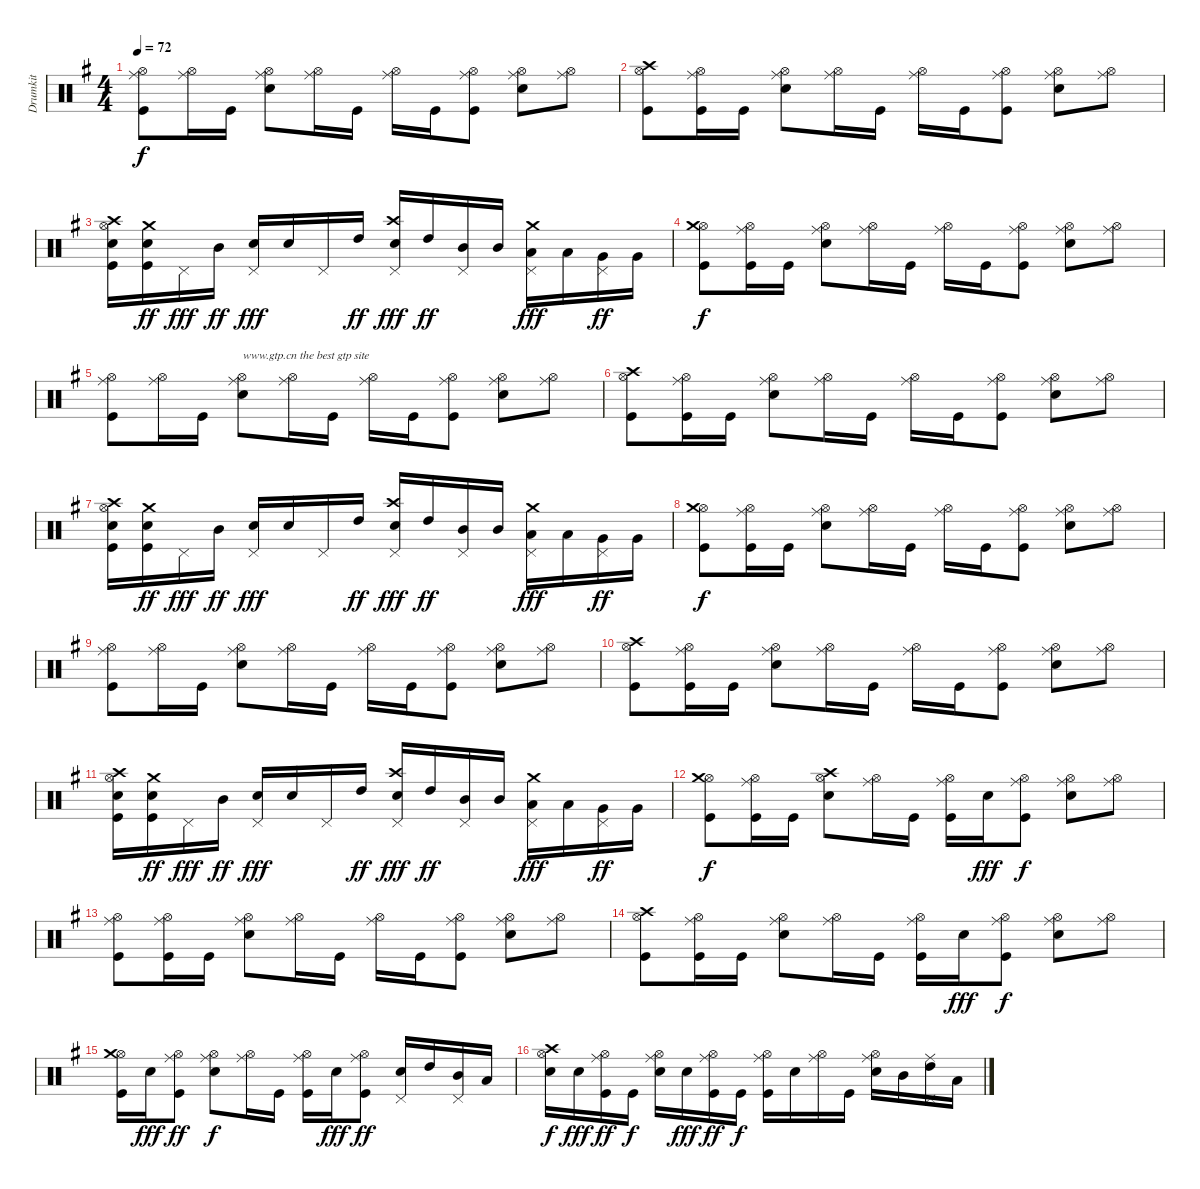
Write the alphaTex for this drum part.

\track ("Drumkit" "Drumkit") {instrument percussion}
\staff {score}
\articulation defaults
\ts (4 4)
\tempo 72
\clef neutral
\ks g
("Hi-Hat (open)" "Ride (middle)" "Kick (hit)").8{dy f} ("Hi-Hat (open)" "Ride (middle)").16 "Kick (hit)".16 ("Hi-Hat (open)" "Ride (middle)" "Snare (hit) 2").8 ("Hi-Hat (open)" "Ride (middle)").16 "Kick (hit)".16 ("Hi-Hat (open)" "Ride (middle)").16 "Kick (hit)".16 ("Hi-Hat (open)" "Ride (middle)" "Kick (hit)").8 ("Hi-Hat (open)" "Ride (middle)" "Snare (hit) 2").8 ("Hi-Hat (open)" "Ride (middle)").8 |
("Hi-Hat (open)" "Crash high (hit)" "Kick (hit)").8 ("Hi-Hat (open)" "Ride (middle)" "Kick (hit)").16 "Kick (hit)".16 ("Hi-Hat (open)" "Ride (middle)" "Snare (hit) 2").8 ("Hi-Hat (open)" "Ride (middle)").16 "Kick (hit)".16 ("Hi-Hat (open)" "Ride (middle)").16 "Kick (hit)".16 ("Hi-Hat (open)" "Ride (middle)" "Kick (hit)").8 ("Hi-Hat (open)" "Ride (middle)" "Snare (hit) 2").8 ("Hi-Hat (open)" "Ride (middle)").8 |
("Hi-Hat (open)" "Crash high (hit)" "Snare (hit) 2" "Kick (hit)").16 ("Crash medium (hit)" "Snare (hit) 2" "Kick (hit)").16{dy ff} "Pedal Hi-Hat (hit)".16{dy fff} "Mid Tom (hit)".16{dy ff} ("Pedal Hi-Hat (hit)" "Snare (hit) 2").16{dy fff} "Snare (hit) 2".16 "Pedal Hi-Hat (hit)".16 "High Tom (hit)".16{dy ff} ("Pedal Hi-Hat (hit)" "Crash high (hit)" "Snare (hit) 2").16{dy fff} "High Tom (hit)".16{dy ff} ("Pedal Hi-Hat (hit)" "Mid Tom (hit)").16 "Mid Tom (hit)".16 ("Pedal Hi-Hat (hit)" "Crash medium (hit)" "Low Tom (hit)").16{dy fff} "Low Tom (hit)".16 ("Pedal Hi-Hat (hit)" "Very Low Tom (hit)").16{dy ff} "Very Low Tom (hit)".16 |
("Hi-Hat (open)" "Crash medium (hit)" "Kick (hit)").8{dy f} ("Hi-Hat (open)" "Ride (middle)" "Kick (hit)").16 "Kick (hit)".16 ("Hi-Hat (open)" "Ride (middle)" "Snare (hit) 2").8 ("Hi-Hat (open)" "Ride (middle)").16 "Kick (hit)".16 ("Hi-Hat (open)" "Ride (middle)").16 "Kick (hit)".16 ("Hi-Hat (open)" "Ride (middle)" "Kick (hit)").8 ("Hi-Hat (open)" "Ride (middle)" "Snare (hit) 2").8 ("Hi-Hat (open)" "Ride (middle)").8 |
("Hi-Hat (open)" "Ride (middle)" "Kick (hit)").8 ("Hi-Hat (open)" "Ride (middle)").16 "Kick (hit)".16 ("Hi-Hat (open)" "Ride (middle)" "Snare (hit) 2").8{txt "www.gtp.cn the best gtp site"} ("Hi-Hat (open)" "Ride (middle)").16 "Kick (hit)".16 ("Hi-Hat (open)" "Ride (middle)").16 "Kick (hit)".16 ("Hi-Hat (open)" "Ride (middle)" "Kick (hit)").8 ("Hi-Hat (open)" "Ride (middle)" "Snare (hit) 2").8 ("Hi-Hat (open)" "Ride (middle)").8 |
("Hi-Hat (open)" "Crash high (hit)" "Kick (hit)").8 ("Hi-Hat (open)" "Ride (middle)" "Kick (hit)").16 "Kick (hit)".16 ("Hi-Hat (open)" "Ride (middle)" "Snare (hit) 2").8 ("Hi-Hat (open)" "Ride (middle)").16 "Kick (hit)".16 ("Hi-Hat (open)" "Ride (middle)").16 "Kick (hit)".16 ("Hi-Hat (open)" "Ride (middle)" "Kick (hit)").8 ("Hi-Hat (open)" "Ride (middle)" "Snare (hit) 2").8 ("Hi-Hat (open)" "Ride (middle)").8 |
("Hi-Hat (open)" "Crash high (hit)" "Snare (hit) 2" "Kick (hit)").16 ("Crash medium (hit)" "Snare (hit) 2" "Kick (hit)").16{dy ff} "Pedal Hi-Hat (hit)".16{dy fff} "Mid Tom (hit)".16{dy ff} ("Pedal Hi-Hat (hit)" "Snare (hit) 2").16{dy fff} "Snare (hit) 2".16 "Pedal Hi-Hat (hit)".16 "High Tom (hit)".16{dy ff} ("Pedal Hi-Hat (hit)" "Crash high (hit)" "Snare (hit) 2").16{dy fff} "High Tom (hit)".16{dy ff} ("Pedal Hi-Hat (hit)" "Mid Tom (hit)").16 "Mid Tom (hit)".16 ("Pedal Hi-Hat (hit)" "Crash medium (hit)" "Low Tom (hit)").16{dy fff} "Low Tom (hit)".16 ("Pedal Hi-Hat (hit)" "Very Low Tom (hit)").16{dy ff} "Very Low Tom (hit)".16 |
("Hi-Hat (open)" "Crash medium (hit)" "Kick (hit)").8{dy f} ("Hi-Hat (open)" "Ride (middle)" "Kick (hit)").16 "Kick (hit)".16 ("Hi-Hat (open)" "Ride (middle)" "Snare (hit) 2").8 ("Hi-Hat (open)" "Ride (middle)").16 "Kick (hit)".16 ("Hi-Hat (open)" "Ride (middle)").16 "Kick (hit)".16 ("Hi-Hat (open)" "Ride (middle)" "Kick (hit)").8 ("Hi-Hat (open)" "Ride (middle)" "Snare (hit) 2").8 ("Hi-Hat (open)" "Ride (middle)").8 |
("Hi-Hat (open)" "Ride (middle)" "Kick (hit)").8 ("Hi-Hat (open)" "Ride (middle)").16 "Kick (hit)".16 ("Hi-Hat (open)" "Ride (middle)" "Snare (hit) 2").8 ("Hi-Hat (open)" "Ride (middle)").16 "Kick (hit)".16 ("Hi-Hat (open)" "Ride (middle)").16 "Kick (hit)".16 ("Hi-Hat (open)" "Ride (middle)" "Kick (hit)").8 ("Hi-Hat (open)" "Ride (middle)" "Snare (hit) 2").8 ("Hi-Hat (open)" "Ride (middle)").8 |
("Hi-Hat (open)" "Crash high (hit)" "Kick (hit)").8 ("Hi-Hat (open)" "Ride (middle)" "Kick (hit)").16 "Kick (hit)".16 ("Hi-Hat (open)" "Ride (middle)" "Snare (hit) 2").8 ("Hi-Hat (open)" "Ride (middle)").16 "Kick (hit)".16 ("Hi-Hat (open)" "Ride (middle)").16 "Kick (hit)".16 ("Hi-Hat (open)" "Ride (middle)" "Kick (hit)").8 ("Hi-Hat (open)" "Ride (middle)" "Snare (hit) 2").8 ("Hi-Hat (open)" "Ride (middle)").8 |
("Hi-Hat (open)" "Crash high (hit)" "Snare (hit) 2" "Kick (hit)").16 ("Crash medium (hit)" "Snare (hit) 2" "Kick (hit)").16{dy ff} "Pedal Hi-Hat (hit)".16{dy fff} "Mid Tom (hit)".16{dy ff} ("Pedal Hi-Hat (hit)" "Snare (hit) 2").16{dy fff} "Snare (hit) 2".16 "Pedal Hi-Hat (hit)".16 "High Tom (hit)".16{dy ff} ("Pedal Hi-Hat (hit)" "Crash high (hit)" "Snare (hit) 2").16{dy fff} "High Tom (hit)".16{dy ff} ("Pedal Hi-Hat (hit)" "Mid Tom (hit)").16 "Mid Tom (hit)".16 ("Pedal Hi-Hat (hit)" "Crash medium (hit)" "Low Tom (hit)").16{dy fff} "Low Tom (hit)".16 ("Pedal Hi-Hat (hit)" "Very Low Tom (hit)").16{dy ff} "Very Low Tom (hit)".16 |
("Hi-Hat (open)" "Crash medium (hit)" "Kick (hit)").8{dy f} ("Hi-Hat (open)" "Ride (middle)" "Kick (hit)").16 "Kick (hit)".16 ("Hi-Hat (open)" "Crash high (hit)" "Snare (hit) 2").8 ("Hi-Hat (open)" "Ride (middle)").16 "Kick (hit)".16 ("Hi-Hat (open)" "Ride (middle)" "Kick (hit)").16 "Snare (hit) 2".16{dy fff} ("Hi-Hat (open)" "Ride (middle)" "Kick (hit)").8{dy f} ("Hi-Hat (open)" "Ride (middle)" "Snare (hit) 2").8 ("Hi-Hat (open)" "Ride (middle)").8 |
("Hi-Hat (open)" "Ride (middle)" "Kick (hit)").8 ("Hi-Hat (open)" "Ride (middle)" "Kick (hit)").16 "Kick (hit)".16 ("Hi-Hat (open)" "Ride (middle)" "Snare (hit) 2").8 ("Hi-Hat (open)" "Ride (middle)").16 "Kick (hit)".16 ("Hi-Hat (open)" "Ride (middle)").16 "Kick (hit)".16 ("Hi-Hat (open)" "Ride (middle)" "Kick (hit)").8 ("Hi-Hat (open)" "Ride (middle)" "Snare (hit) 2").8 ("Hi-Hat (open)" "Ride (middle)").8 |
("Hi-Hat (open)" "Crash high (hit)" "Kick (hit)").8 ("Hi-Hat (open)" "Ride (middle)" "Kick (hit)").16 "Kick (hit)".16 ("Hi-Hat (open)" "Ride (middle)" "Snare (hit) 2").8 ("Hi-Hat (open)" "Ride (middle)").16 "Kick (hit)".16 ("Hi-Hat (open)" "Ride (middle)" "Kick (hit)").16 "Snare (hit) 2".16{dy fff} ("Hi-Hat (open)" "Ride (middle)" "Kick (hit)").8{dy f} ("Hi-Hat (open)" "Ride (middle)" "Snare (hit) 2").8 ("Hi-Hat (open)" "Ride (middle)").8 |
("Hi-Hat (open)" "Crash medium (hit)" "Kick (hit)").16 "Snare (hit) 2".16{dy fff} ("Hi-Hat (open)" "Ride (middle)" "Kick (hit)").8{dy ff} ("Hi-Hat (open)" "Ride (middle)" "Snare (hit) 2").8{dy f} ("Hi-Hat (open)" "Ride (middle)").16 "Kick (hit)".16 ("Hi-Hat (open)" "Ride (middle)" "Kick (hit)").16 "Snare (hit) 2".16{dy fff} ("Hi-Hat (open)" "Ride (middle)" "Kick (hit)").8{dy ff} ("Pedal Hi-Hat (hit)" "Snare (hit) 2").16 "High Tom (hit)".16 ("Pedal Hi-Hat (hit)" "Mid Tom (hit)").16 "Low Tom (hit)".16 |
("Hi-Hat (open)" "Crash high (hit)" "Snare (hit) 2").16{dy f} "Snare (hit) 2".16{dy fff} ("Hi-Hat (open)" "Ride (middle)" "Kick (hit)").16{dy ff} "Kick (hit)".16{dy f} ("Hi-Hat (open)" "Ride (middle)" "Snare (hit) 2").16 "Snare (hit) 2".16{dy fff} ("Hi-Hat (open)" "Ride (middle)" "Kick (hit)").16{dy ff} "Kick (hit)".16{dy f} ("Hi-Hat (open)" "Ride (middle)" "Kick (hit)").16 "Snare (hit) 2".16 ("Hi-Hat (open)" "Ride (middle)").16 "Kick (hit)".16 ("Hi-Hat (open)" "Ride (middle)" "Snare (hit) 2").16 "Mid Tom (hit)".16 ("Pedal Hi-Hat (hit)" "Ride (middle)" "High Tom (hit)").16 "Low Tom (hit)".16
